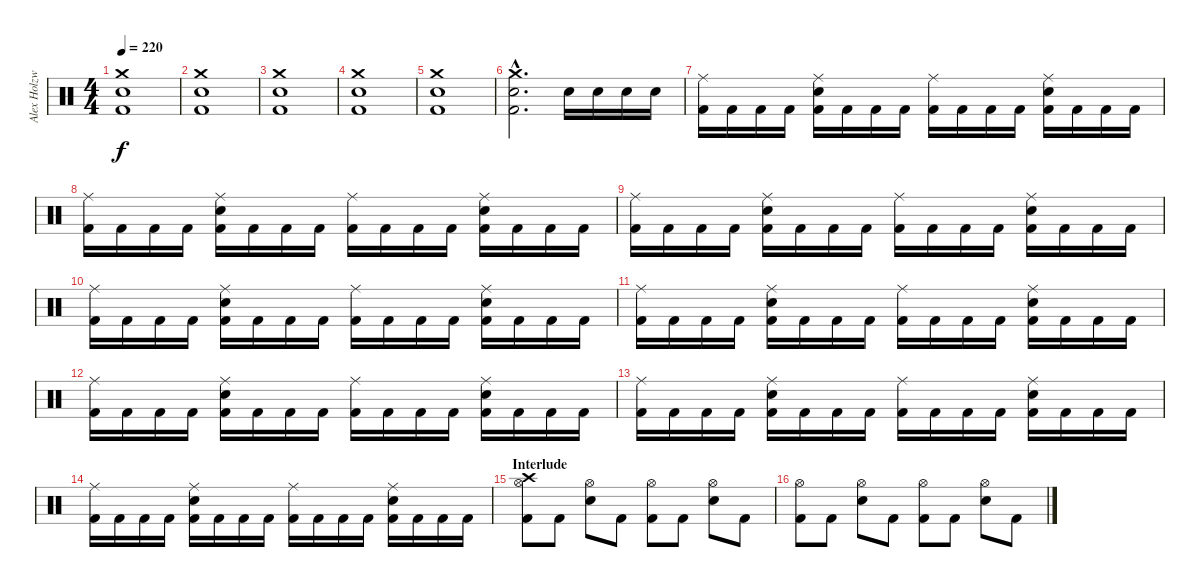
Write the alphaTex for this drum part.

\track ("Alex Holzwarth" "Alex Holzw") {instrument percussion}
\staff {score}
\articulation defaults
\ts (4 4)
\tempo 220
\clef neutral
\ks c
("Crash medium (hit)" "Snare (hit) 2" "Kick (hit) 2").1{dy f} |
("Crash medium (hit)" "Snare (hit) 2" "Kick (hit) 2").1 |
("Crash medium (hit)" "Snare (hit) 2" "Kick (hit) 2").1 |
("Crash medium (hit)" "Snare (hit) 2" "Kick (hit) 2").1 |
("Crash medium (hit)" "Snare (hit) 2" "Kick (hit) 2").1 |
("Crash medium (hit)"{hac} "Snare (hit) 2"{hac} "Kick (hit) 2"{hac}).2{d} "Snare (hit) 2".16 "Snare (hit) 2".16 "Snare (hit) 2".16 "Snare (hit) 2".16 |
("Ride (middle)" "Kick (hit) 2").16 "Kick (hit) 2".16 "Kick (hit) 2".16 "Kick (hit) 2".16 ("Ride (middle)" "Snare (hit) 2" "Kick (hit) 2").16 "Kick (hit) 2".16 "Kick (hit) 2".16 "Kick (hit) 2".16 ("Ride (middle)" "Kick (hit) 2").16 "Kick (hit) 2".16 "Kick (hit) 2".16 "Kick (hit) 2".16 ("Ride (middle)" "Snare (hit) 2" "Kick (hit) 2").16 "Kick (hit) 2".16 "Kick (hit) 2".16 "Kick (hit) 2".16 |
("Ride (middle)" "Kick (hit) 2").16 "Kick (hit) 2".16 "Kick (hit) 2".16 "Kick (hit) 2".16 ("Ride (middle)" "Snare (hit) 2" "Kick (hit) 2").16 "Kick (hit) 2".16 "Kick (hit) 2".16 "Kick (hit) 2".16 ("Ride (middle)" "Kick (hit) 2").16 "Kick (hit) 2".16 "Kick (hit) 2".16 "Kick (hit) 2".16 ("Ride (middle)" "Snare (hit) 2" "Kick (hit) 2").16 "Kick (hit) 2".16 "Kick (hit) 2".16 "Kick (hit) 2".16 |
("Ride (middle)" "Kick (hit) 2").16 "Kick (hit) 2".16 "Kick (hit) 2".16 "Kick (hit) 2".16 ("Ride (middle)" "Snare (hit) 2" "Kick (hit) 2").16 "Kick (hit) 2".16 "Kick (hit) 2".16 "Kick (hit) 2".16 ("Ride (middle)" "Kick (hit) 2").16 "Kick (hit) 2".16 "Kick (hit) 2".16 "Kick (hit) 2".16 ("Ride (middle)" "Snare (hit) 2" "Kick (hit) 2").16 "Kick (hit) 2".16 "Kick (hit) 2".16 "Kick (hit) 2".16 |
("Ride (middle)" "Kick (hit) 2").16 "Kick (hit) 2".16 "Kick (hit) 2".16 "Kick (hit) 2".16 ("Ride (middle)" "Snare (hit) 2" "Kick (hit) 2").16 "Kick (hit) 2".16 "Kick (hit) 2".16 "Kick (hit) 2".16 ("Ride (middle)" "Kick (hit) 2").16 "Kick (hit) 2".16 "Kick (hit) 2".16 "Kick (hit) 2".16 ("Ride (middle)" "Snare (hit) 2" "Kick (hit) 2").16 "Kick (hit) 2".16 "Kick (hit) 2".16 "Kick (hit) 2".16 |
("Ride (middle)" "Kick (hit) 2").16 "Kick (hit) 2".16 "Kick (hit) 2".16 "Kick (hit) 2".16 ("Ride (middle)" "Snare (hit) 2" "Kick (hit) 2").16 "Kick (hit) 2".16 "Kick (hit) 2".16 "Kick (hit) 2".16 ("Ride (middle)" "Kick (hit) 2").16 "Kick (hit) 2".16 "Kick (hit) 2".16 "Kick (hit) 2".16 ("Ride (middle)" "Snare (hit) 2" "Kick (hit) 2").16 "Kick (hit) 2".16 "Kick (hit) 2".16 "Kick (hit) 2".16 |
("Ride (middle)" "Kick (hit) 2").16 "Kick (hit) 2".16 "Kick (hit) 2".16 "Kick (hit) 2".16 ("Ride (middle)" "Snare (hit) 2" "Kick (hit) 2").16 "Kick (hit) 2".16 "Kick (hit) 2".16 "Kick (hit) 2".16 ("Ride (middle)" "Kick (hit) 2").16 "Kick (hit) 2".16 "Kick (hit) 2".16 "Kick (hit) 2".16 ("Ride (middle)" "Snare (hit) 2" "Kick (hit) 2").16 "Kick (hit) 2".16 "Kick (hit) 2".16 "Kick (hit) 2".16 |
("Ride (middle)" "Kick (hit) 2").16 "Kick (hit) 2".16 "Kick (hit) 2".16 "Kick (hit) 2".16 ("Ride (middle)" "Snare (hit) 2" "Kick (hit) 2").16 "Kick (hit) 2".16 "Kick (hit) 2".16 "Kick (hit) 2".16 ("Ride (middle)" "Kick (hit) 2").16 "Kick (hit) 2".16 "Kick (hit) 2".16 "Kick (hit) 2".16 ("Ride (middle)" "Snare (hit) 2" "Kick (hit) 2").16 "Kick (hit) 2".16 "Kick (hit) 2".16 "Kick (hit) 2".16 |
("Ride (middle)" "Kick (hit) 2").16 "Kick (hit) 2".16 "Kick (hit) 2".16 "Kick (hit) 2".16 ("Ride (middle)" "Snare (hit) 2" "Kick (hit) 2").16 "Kick (hit) 2".16 "Kick (hit) 2".16 "Kick (hit) 2".16 ("Ride (middle)" "Kick (hit) 2").16 "Kick (hit) 2".16 "Kick (hit) 2".16 "Kick (hit) 2".16 ("Ride (middle)" "Snare (hit) 2" "Kick (hit) 2").16 "Kick (hit) 2".16 "Kick (hit) 2".16 "Kick (hit) 2".16 |
\section ("" "Interlude")
("Crash high (hit)" "Hi-Hat (open)" "Kick (hit) 2").8 "Kick (hit) 2".8 ("Hi-Hat (open)" "Electric Snare (hit)").8 "Kick (hit) 2".8 ("Hi-Hat (open)" "Kick (hit) 2").8 "Kick (hit) 2".8 ("Hi-Hat (open)" "Electric Snare (hit)").8 "Kick (hit) 2".8 |
("Hi-Hat (open)" "Kick (hit) 2").8 "Kick (hit) 2".8 ("Hi-Hat (open)" "Electric Snare (hit)").8 "Kick (hit) 2".8 ("Hi-Hat (open)" "Kick (hit) 2").8 "Kick (hit) 2".8 ("Hi-Hat (open)" "Electric Snare (hit)").8 "Kick (hit) 2".8
